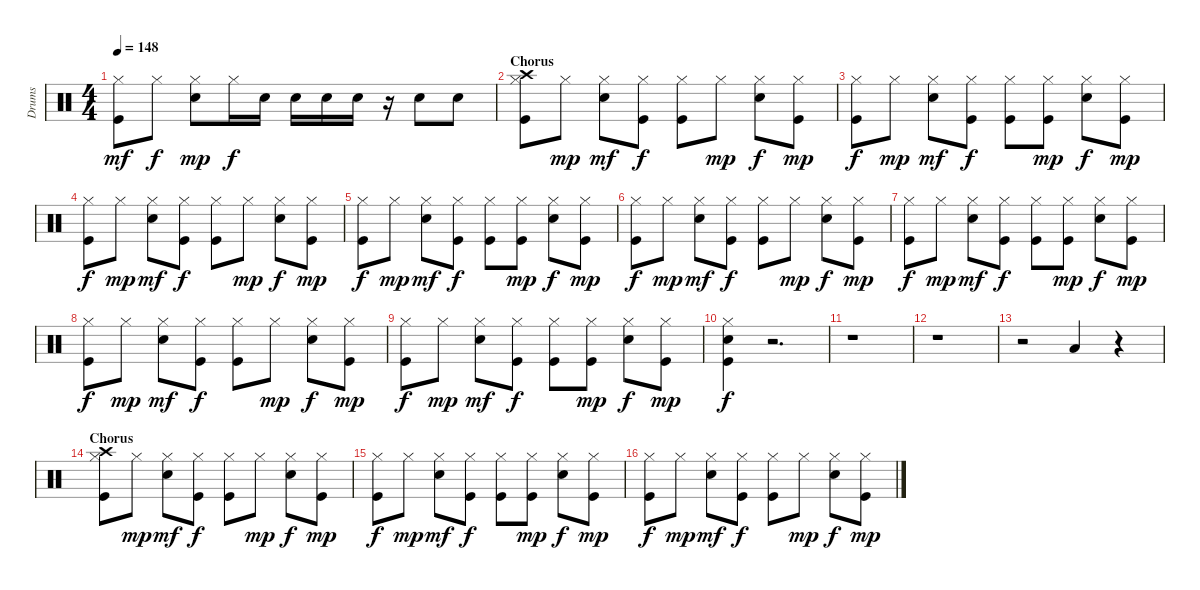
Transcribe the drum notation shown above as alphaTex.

\track ("Drums   " "Drums   ") {instrument percussion}
\staff {score}
\articulation defaults
\ts (4 4)
\tempo 148
\clef neutral
\ks c
("Hi-Hat (closed)" "Kick (hit)").8{dy mf} "Hi-Hat (closed)".8{dy f} ("Hi-Hat (closed)" "Snare (hit) 2").8{dy mp} "Hi-Hat (closed)".16{dy f} "Snare (hit) 2".16 "Snare (hit) 2".16 "Snare (hit) 2".16 "Snare (hit) 2".16 r.16 "Snare (hit) 2".8 "Snare (hit) 2".8 |
\section ("" "Chorus")
("Hi-Hat (closed)" "Crash high (hit)" "Kick (hit)").8 "Hi-Hat (closed)".8{dy mp} ("Hi-Hat (closed)" "Snare (hit) 2").8{dy mf} ("Hi-Hat (closed)" "Kick (hit)").8{dy f} ("Hi-Hat (closed)" "Kick (hit)").8 "Hi-Hat (closed)".8{dy mp} ("Hi-Hat (closed)" "Snare (hit) 2").8{dy f} ("Hi-Hat (closed)" "Kick (hit)").8{dy mp} |
("Hi-Hat (closed)" "Kick (hit)").8{dy f} "Hi-Hat (closed)".8{dy mp} ("Hi-Hat (closed)" "Snare (hit) 2").8{dy mf} ("Hi-Hat (closed)" "Kick (hit)").8{dy f} ("Hi-Hat (closed)" "Kick (hit)").8 ("Hi-Hat (closed)" "Kick (hit)").8{dy mp} ("Hi-Hat (closed)" "Snare (hit) 2").8{dy f} ("Hi-Hat (closed)" "Kick (hit)").8{dy mp} |
("Hi-Hat (closed)" "Kick (hit)").8{dy f} "Hi-Hat (closed)".8{dy mp} ("Hi-Hat (closed)" "Snare (hit) 2").8{dy mf} ("Hi-Hat (closed)" "Kick (hit)").8{dy f} ("Hi-Hat (closed)" "Kick (hit)").8 "Hi-Hat (closed)".8{dy mp} ("Hi-Hat (closed)" "Snare (hit) 2").8{dy f} ("Hi-Hat (closed)" "Kick (hit)").8{dy mp} |
("Hi-Hat (closed)" "Kick (hit)").8{dy f} "Hi-Hat (closed)".8{dy mp} ("Hi-Hat (closed)" "Snare (hit) 2").8{dy mf} ("Hi-Hat (closed)" "Kick (hit)").8{dy f} ("Hi-Hat (closed)" "Kick (hit)").8 ("Hi-Hat (closed)" "Kick (hit)").8{dy mp} ("Hi-Hat (closed)" "Snare (hit) 2").8{dy f} ("Hi-Hat (closed)" "Kick (hit)").8{dy mp} |
("Hi-Hat (closed)" "Kick (hit)").8{dy f} "Hi-Hat (closed)".8{dy mp} ("Hi-Hat (closed)" "Snare (hit) 2").8{dy mf} ("Hi-Hat (closed)" "Kick (hit)").8{dy f} ("Hi-Hat (closed)" "Kick (hit)").8 "Hi-Hat (closed)".8{dy mp} ("Hi-Hat (closed)" "Snare (hit) 2").8{dy f} ("Hi-Hat (closed)" "Kick (hit)").8{dy mp} |
("Hi-Hat (closed)" "Kick (hit)").8{dy f} "Hi-Hat (closed)".8{dy mp} ("Hi-Hat (closed)" "Snare (hit) 2").8{dy mf} ("Hi-Hat (closed)" "Kick (hit)").8{dy f} ("Hi-Hat (closed)" "Kick (hit)").8 ("Hi-Hat (closed)" "Kick (hit)").8{dy mp} ("Hi-Hat (closed)" "Snare (hit) 2").8{dy f} ("Hi-Hat (closed)" "Kick (hit)").8{dy mp} |
("Hi-Hat (closed)" "Kick (hit)").8{dy f} "Hi-Hat (closed)".8{dy mp} ("Hi-Hat (closed)" "Snare (hit) 2").8{dy mf} ("Hi-Hat (closed)" "Kick (hit)").8{dy f} ("Hi-Hat (closed)" "Kick (hit)").8 "Hi-Hat (closed)".8{dy mp} ("Hi-Hat (closed)" "Snare (hit) 2").8{dy f} ("Hi-Hat (closed)" "Kick (hit)").8{dy mp} |
("Hi-Hat (closed)" "Kick (hit)").8{dy f} "Hi-Hat (closed)".8{dy mp} ("Hi-Hat (closed)" "Snare (hit) 2").8{dy mf} ("Hi-Hat (closed)" "Kick (hit)").8{dy f} ("Hi-Hat (closed)" "Kick (hit)").8 ("Hi-Hat (closed)" "Kick (hit)").8{dy mp} ("Hi-Hat (closed)" "Snare (hit) 2").8{dy f} ("Hi-Hat (closed)" "Kick (hit)").8{dy mp} |
("Hi-Hat (closed)" "Snare (hit) 2" "Kick (hit)").4{dy f} r.2{d} |
r.1 |
r.1 |
r.2 "Low Tom (hit)".4 r.4 |
\section ("" "Chorus")
("Hi-Hat (closed)" "Crash high (hit)" "Kick (hit)").8 "Hi-Hat (closed)".8{dy mp} ("Hi-Hat (closed)" "Snare (hit) 2").8{dy mf} ("Hi-Hat (closed)" "Kick (hit)").8{dy f} ("Hi-Hat (closed)" "Kick (hit)").8 "Hi-Hat (closed)".8{dy mp} ("Hi-Hat (closed)" "Snare (hit) 2").8{dy f} ("Hi-Hat (closed)" "Kick (hit)").8{dy mp} |
("Hi-Hat (closed)" "Kick (hit)").8{dy f} "Hi-Hat (closed)".8{dy mp} ("Hi-Hat (closed)" "Snare (hit) 2").8{dy mf} ("Hi-Hat (closed)" "Kick (hit)").8{dy f} ("Hi-Hat (closed)" "Kick (hit)").8 ("Hi-Hat (closed)" "Kick (hit)").8{dy mp} ("Hi-Hat (closed)" "Snare (hit) 2").8{dy f} ("Hi-Hat (closed)" "Kick (hit)").8{dy mp} |
("Hi-Hat (closed)" "Kick (hit)").8{dy f} "Hi-Hat (closed)".8{dy mp} ("Hi-Hat (closed)" "Snare (hit) 2").8{dy mf} ("Hi-Hat (closed)" "Kick (hit)").8{dy f} ("Hi-Hat (closed)" "Kick (hit)").8 "Hi-Hat (closed)".8{dy mp} ("Hi-Hat (closed)" "Snare (hit) 2").8{dy f} ("Hi-Hat (closed)" "Kick (hit)").8{dy mp}
